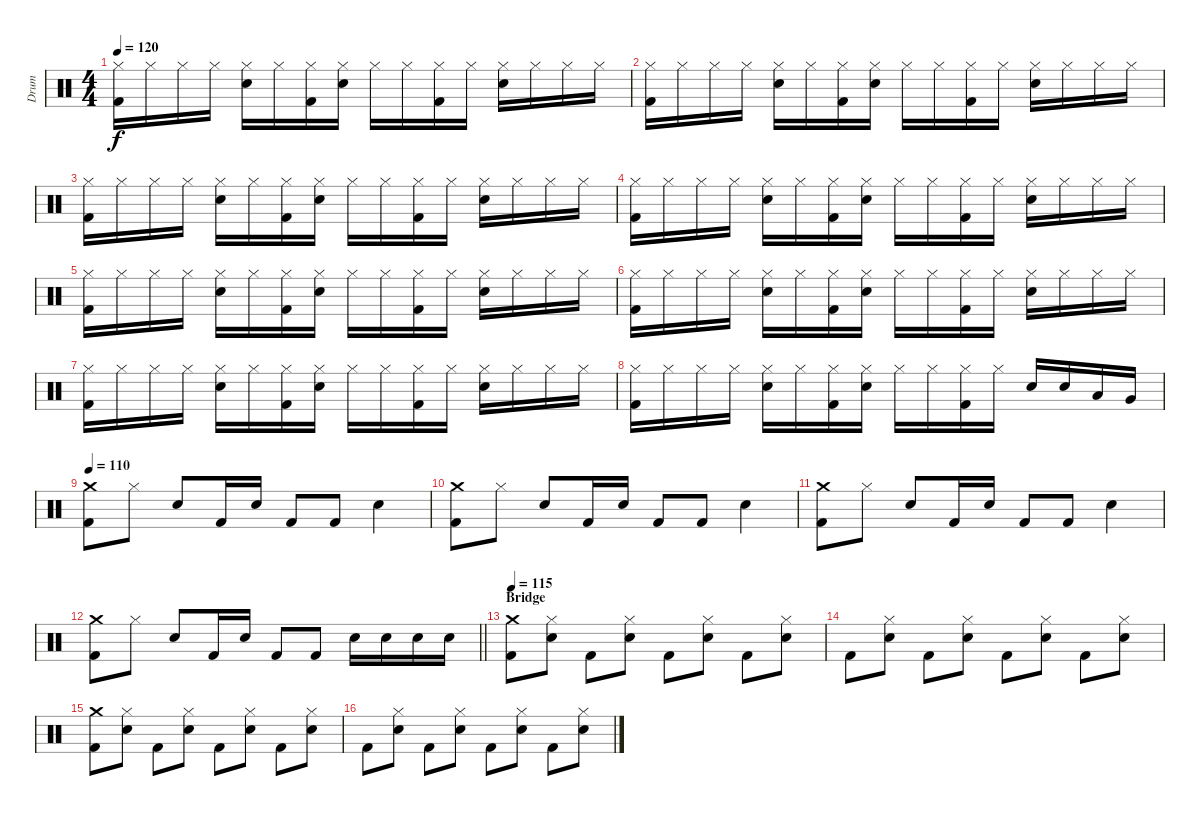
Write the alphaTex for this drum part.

\track ("Drum" "Drum") {instrument percussion}
\staff {score}
\articulation defaults
\ts (4 4)
\tempo 120
\clef neutral
\ks c
("Hi-Hat (closed)" "Kick (hit) 2").16{dy f} "Hi-Hat (closed)".16 "Hi-Hat (closed)".16 "Hi-Hat (closed)".16 ("Hi-Hat (closed)" "Snare (hit) 2").16 "Hi-Hat (closed)".16 ("Hi-Hat (closed)" "Kick (hit) 2").16 ("Hi-Hat (closed)" "Snare (hit) 2").16 "Hi-Hat (closed)".16 "Hi-Hat (closed)".16 ("Hi-Hat (closed)" "Kick (hit) 2").16 "Hi-Hat (closed)".16 ("Hi-Hat (closed)" "Snare (hit) 2").16 "Hi-Hat (closed)".16 "Hi-Hat (closed)".16 "Hi-Hat (closed)".16 |
("Hi-Hat (closed)" "Kick (hit) 2").16 "Hi-Hat (closed)".16 "Hi-Hat (closed)".16 "Hi-Hat (closed)".16 ("Hi-Hat (closed)" "Snare (hit) 2").16 "Hi-Hat (closed)".16 ("Hi-Hat (closed)" "Kick (hit) 2").16 ("Hi-Hat (closed)" "Snare (hit) 2").16 "Hi-Hat (closed)".16 "Hi-Hat (closed)".16 ("Hi-Hat (closed)" "Kick (hit) 2").16 "Hi-Hat (closed)".16 ("Hi-Hat (closed)" "Snare (hit) 2").16 "Hi-Hat (closed)".16 "Hi-Hat (closed)".16 "Hi-Hat (closed)".16 |
("Hi-Hat (closed)" "Kick (hit) 2").16 "Hi-Hat (closed)".16 "Hi-Hat (closed)".16 "Hi-Hat (closed)".16 ("Hi-Hat (closed)" "Snare (hit) 2").16 "Hi-Hat (closed)".16 ("Hi-Hat (closed)" "Kick (hit) 2").16 ("Hi-Hat (closed)" "Snare (hit) 2").16 "Hi-Hat (closed)".16 "Hi-Hat (closed)".16 ("Hi-Hat (closed)" "Kick (hit) 2").16 "Hi-Hat (closed)".16 ("Hi-Hat (closed)" "Snare (hit) 2").16 "Hi-Hat (closed)".16 "Hi-Hat (closed)".16 "Hi-Hat (closed)".16 |
("Hi-Hat (closed)" "Kick (hit) 2").16 "Hi-Hat (closed)".16 "Hi-Hat (closed)".16 "Hi-Hat (closed)".16 ("Hi-Hat (closed)" "Snare (hit) 2").16 "Hi-Hat (closed)".16 ("Hi-Hat (closed)" "Kick (hit) 2").16 ("Hi-Hat (closed)" "Snare (hit) 2").16 "Hi-Hat (closed)".16 "Hi-Hat (closed)".16 ("Hi-Hat (closed)" "Kick (hit) 2").16 "Hi-Hat (closed)".16 ("Hi-Hat (closed)" "Snare (hit) 2").16 "Hi-Hat (closed)".16 "Hi-Hat (closed)".16 "Hi-Hat (closed)".16 |
("Hi-Hat (closed)" "Kick (hit) 2").16 "Hi-Hat (closed)".16 "Hi-Hat (closed)".16 "Hi-Hat (closed)".16 ("Hi-Hat (closed)" "Snare (hit) 2").16 "Hi-Hat (closed)".16 ("Hi-Hat (closed)" "Kick (hit) 2").16 ("Hi-Hat (closed)" "Snare (hit) 2").16 "Hi-Hat (closed)".16 "Hi-Hat (closed)".16 ("Hi-Hat (closed)" "Kick (hit) 2").16 "Hi-Hat (closed)".16 ("Hi-Hat (closed)" "Snare (hit) 2").16 "Hi-Hat (closed)".16 "Hi-Hat (closed)".16 "Hi-Hat (closed)".16 |
("Hi-Hat (closed)" "Kick (hit) 2").16 "Hi-Hat (closed)".16 "Hi-Hat (closed)".16 "Hi-Hat (closed)".16 ("Hi-Hat (closed)" "Snare (hit) 2").16 "Hi-Hat (closed)".16 ("Hi-Hat (closed)" "Kick (hit) 2").16 ("Hi-Hat (closed)" "Snare (hit) 2").16 "Hi-Hat (closed)".16 "Hi-Hat (closed)".16 ("Hi-Hat (closed)" "Kick (hit) 2").16 "Hi-Hat (closed)".16 ("Hi-Hat (closed)" "Snare (hit) 2").16 "Hi-Hat (closed)".16 "Hi-Hat (closed)".16 "Hi-Hat (closed)".16 |
("Hi-Hat (closed)" "Kick (hit) 2").16 "Hi-Hat (closed)".16 "Hi-Hat (closed)".16 "Hi-Hat (closed)".16 ("Hi-Hat (closed)" "Snare (hit) 2").16 "Hi-Hat (closed)".16 ("Hi-Hat (closed)" "Kick (hit) 2").16 ("Hi-Hat (closed)" "Snare (hit) 2").16 "Hi-Hat (closed)".16 "Hi-Hat (closed)".16 ("Hi-Hat (closed)" "Kick (hit) 2").16 "Hi-Hat (closed)".16 ("Hi-Hat (closed)" "Snare (hit) 2").16 "Hi-Hat (closed)".16 "Hi-Hat (closed)".16 "Hi-Hat (closed)".16 |
("Hi-Hat (closed)" "Kick (hit) 2").16 "Hi-Hat (closed)".16 "Hi-Hat (closed)".16 "Hi-Hat (closed)".16 ("Hi-Hat (closed)" "Snare (hit) 2").16 "Hi-Hat (closed)".16 ("Hi-Hat (closed)" "Kick (hit) 2").16 ("Hi-Hat (closed)" "Snare (hit) 2").16 "Hi-Hat (closed)".16 "Hi-Hat (closed)".16 ("Hi-Hat (closed)" "Kick (hit) 2").16 "Hi-Hat (closed)".16 "Snare (hit) 2".16 "Snare (hit) 2".16 "Low Tom (hit)".16 "Very Low Tom (hit)".16 |
\tempo 110
("Crash medium (hit)" "Kick (hit) 2").8 "Hi-Hat (closed)".8 "Snare (hit) 2".8 "Kick (hit) 2".16 "Snare (hit) 2".16 "Kick (hit) 2".8 "Kick (hit) 2".8 "Snare (hit) 2".4 |
("Crash medium (hit)" "Kick (hit) 2").8 "Hi-Hat (closed)".8 "Snare (hit) 2".8 "Kick (hit) 2".16 "Snare (hit) 2".16 "Kick (hit) 2".8 "Kick (hit) 2".8 "Snare (hit) 2".4 |
("Crash medium (hit)" "Kick (hit) 2").8 "Hi-Hat (closed)".8 "Snare (hit) 2".8 "Kick (hit) 2".16 "Snare (hit) 2".16 "Kick (hit) 2".8 "Kick (hit) 2".8 "Snare (hit) 2".4 |
\barLineRight lightlight
("Crash medium (hit)" "Kick (hit) 2").8 "Hi-Hat (closed)".8 "Snare (hit) 2".8 "Kick (hit) 2".16 "Snare (hit) 2".16 "Kick (hit) 2".8 "Kick (hit) 2".8 "Snare (hit) 2".16 "Snare (hit) 2".16 "Snare (hit) 2".16 "Snare (hit) 2".16 |
\section ("" "Bridge")
\tempo 115
("Crash medium (hit)" "Kick (hit) 2").8 ("Hi-Hat (closed)" "Snare (hit) 2").8 "Kick (hit) 2".8 ("Hi-Hat (closed)" "Snare (hit) 2").8 "Kick (hit) 2".8 ("Hi-Hat (closed)" "Snare (hit) 2").8 "Kick (hit) 2".8 ("Hi-Hat (closed)" "Snare (hit) 2").8 |
"Kick (hit) 2".8 ("Hi-Hat (closed)" "Snare (hit) 2").8 "Kick (hit) 2".8 ("Hi-Hat (closed)" "Snare (hit) 2").8 "Kick (hit) 2".8 ("Hi-Hat (closed)" "Snare (hit) 2").8 "Kick (hit) 2".8 ("Hi-Hat (closed)" "Snare (hit) 2").8 |
("Crash medium (hit)" "Kick (hit) 2").8 ("Hi-Hat (closed)" "Snare (hit) 2").8 "Kick (hit) 2".8 ("Hi-Hat (closed)" "Snare (hit) 2").8 "Kick (hit) 2".8 ("Hi-Hat (closed)" "Snare (hit) 2").8 "Kick (hit) 2".8 ("Hi-Hat (closed)" "Snare (hit) 2").8 |
"Kick (hit) 2".8 ("Hi-Hat (closed)" "Snare (hit) 2").8 "Kick (hit) 2".8 ("Hi-Hat (closed)" "Snare (hit) 2").8 "Kick (hit) 2".8 ("Hi-Hat (closed)" "Snare (hit) 2").8 "Kick (hit) 2".8 ("Hi-Hat (closed)" "Snare (hit) 2").8
